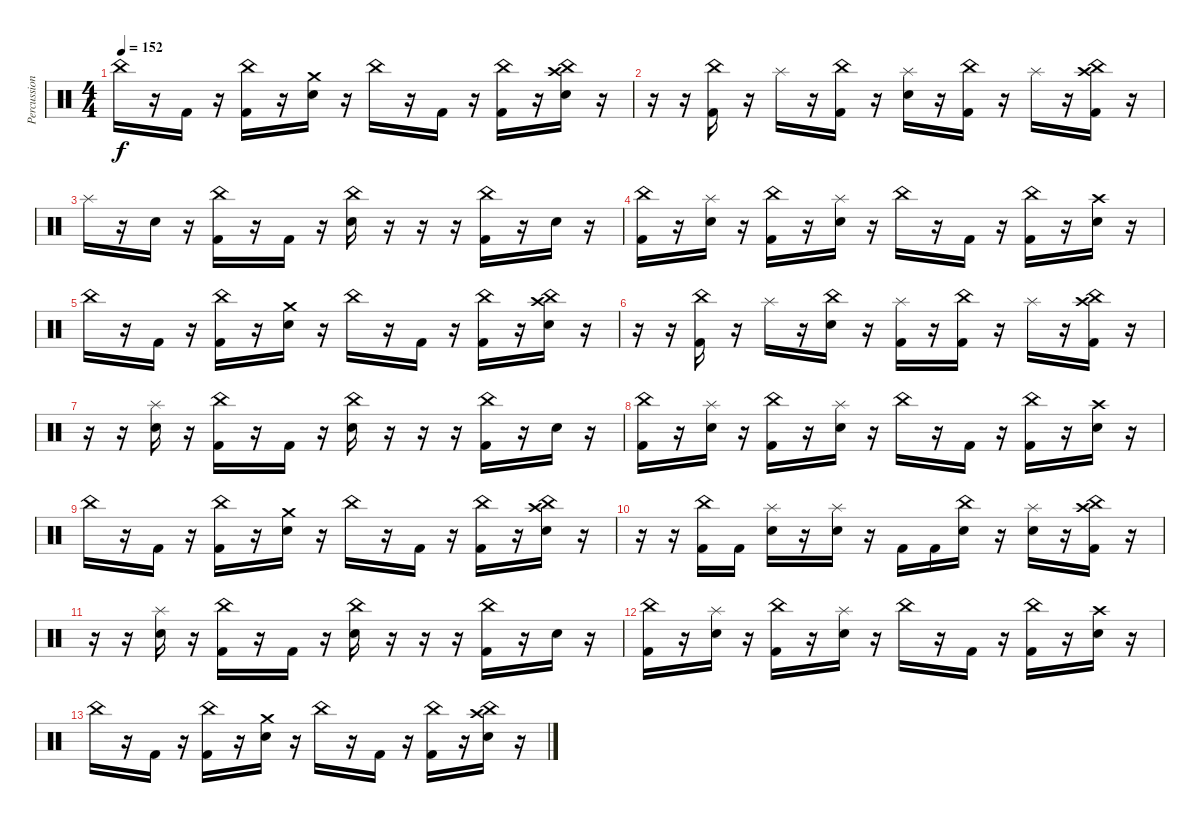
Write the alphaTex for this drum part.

\track ("Percussion" "Percussion") {instrument percussion}
\staff {score}
\articulation defaults
\ts (4 4)
\tempo 152
\clef neutral
\ks c "China (hit)".16{dy f}
r.16 "Kick (hit) 2".16 r.16 ("China (hit)" "Kick (hit) 2").16 r.16 ("Crash medium (hit)" "Electric Snare (hit)").16 r.16 "China (hit)".16 r.16 "Kick (hit) 2".16 r.16 ("China (hit)" "Kick (hit) 2").16 r.16 ("China (hit)" "Crash high (hit)" "Electric Snare (hit)").16 r.16 |
r.16 r.16 ("China (hit)" "Kick (hit) 2").16 r.16 "Splash (hit)".16 r.16 ("China (hit)" "Kick (hit) 2").16 r.16 ("Splash (hit)" "Electric Snare (hit)").16 r.16 ("China (hit)" "Kick (hit) 2").16{volume 8} r.16 "Splash (hit)".16 r.16 ("China (hit)" "Crash high (hit)" "Kick (hit) 2").16 r.16 |
"Splash (hit)".16 r.16 "Electric Snare (hit)".16 r.16 ("China (hit)" "Kick (hit) 2").16 r.16 "Kick (hit) 2".16 r.16 ("China (hit)" "Electric Snare (hit)").16 r.16 r.16 r.16 ("China (hit)" "Kick (hit) 2").16 r.16 "Electric Snare (hit)".16 r.16 |
("China (hit)" "Kick (hit) 2").16 r.16 ("Splash (hit)" "Electric Snare (hit)").16 r.16 ("China (hit)" "Kick (hit) 2").16 r.16 ("Splash (hit)" "Electric Snare (hit)").16 r.16 "China (hit)".16 r.16 "Kick (hit) 2".16 r.16 ("China (hit)" "Kick (hit) 2").16 r.16 ("Crash high (hit)" "Electric Snare (hit)").16 r.16 |
"China (hit)".16 r.16 "Kick (hit) 2".16 r.16 ("China (hit)" "Kick (hit) 2").16 r.16 ("Crash medium (hit)" "Electric Snare (hit)").16 r.16 "China (hit)".16 r.16 "Kick (hit) 2".16 r.16 ("China (hit)" "Kick (hit) 2").16 r.16 ("China (hit)" "Crash high (hit)" "Electric Snare (hit)").16 r.16 |
r.16 r.16 ("China (hit)" "Kick (hit) 2").16 r.16 "Splash (hit)".16 r.16 ("China (hit)" "Electric Snare (hit)").16 r.16 ("Splash (hit)" "Kick (hit) 2").16 r.16 ("China (hit)" "Kick (hit) 2").16 r.16 "Splash (hit)".16 r.16 ("China (hit)" "Crash high (hit)" "Kick (hit) 2").16 r.16 |
r.16 r.16 ("Splash (hit)" "Electric Snare (hit)").16 r.16 ("China (hit)" "Kick (hit) 2").16 r.16 "Kick (hit) 2".16 r.16 ("China (hit)" "Electric Snare (hit)").16 r.16 r.16 r.16 ("China (hit)" "Kick (hit) 2").16 r.16 "Electric Snare (hit)".16 r.16 |
("China (hit)" "Kick (hit) 2").16 r.16 ("Splash (hit)" "Electric Snare (hit)").16 r.16 ("China (hit)" "Kick (hit) 2").16 r.16 ("Splash (hit)" "Electric Snare (hit)").16 r.16 "China (hit)".16 r.16 "Kick (hit) 2".16 r.16 ("China (hit)" "Kick (hit) 2").16 r.16 ("Crash high (hit)" "Electric Snare (hit)").16 r.16 |
"China (hit)".16 r.16 "Kick (hit) 2".16 r.16 ("China (hit)" "Kick (hit) 2").16 r.16 ("Crash medium (hit)" "Electric Snare (hit)").16 r.16 "China (hit)".16 r.16 "Kick (hit) 2".16 r.16 ("China (hit)" "Kick (hit) 2").16 r.16 ("China (hit)" "Crash high (hit)" "Electric Snare (hit)").16 r.16 |
r.16{volume 4} r.16 ("China (hit)" "Kick (hit) 2").16 "Kick (hit) 2".16 ("Splash (hit)" "Electric Snare (hit)").16 r.16 ("Splash (hit)" "Electric Snare (hit)").16 r.16 "Kick (hit) 2".16 "Kick (hit) 2".16 ("China (hit)" "Electric Snare (hit)").16 r.16 ("Splash (hit)" "Electric Snare (hit)").16 r.16 ("China (hit)" "Crash high (hit)" "Kick (hit) 2").16 r.16 |
r.16 r.16 ("Splash (hit)" "Electric Snare (hit)").16 r.16 ("China (hit)" "Kick (hit) 2").16 r.16 "Kick (hit) 2".16 r.16 ("China (hit)" "Electric Snare (hit)").16 r.16 r.16 r.16 ("China (hit)" "Kick (hit) 2").16 r.16 "Electric Snare (hit)".16 r.16 |
("China (hit)" "Kick (hit) 2").16 r.16 ("Splash (hit)" "Electric Snare (hit)").16 r.16 ("China (hit)" "Kick (hit) 2").16 r.16 ("Splash (hit)" "Electric Snare (hit)").16 r.16 "China (hit)".16 r.16 "Kick (hit) 2".16 r.16 ("China (hit)" "Kick (hit) 2").16 r.16 ("Crash high (hit)" "Electric Snare (hit)").16 r.16 |
"China (hit)".16 r.16 "Kick (hit) 2".16 r.16 ("China (hit)" "Kick (hit) 2").16 r.16 ("Crash medium (hit)" "Electric Snare (hit)").16 r.16 "China (hit)".16{volume 0} r.16 "Kick (hit) 2".16 r.16 ("China (hit)" "Kick (hit) 2").16 r.16 ("China (hit)" "Crash high (hit)" "Electric Snare (hit)").16 r.16
